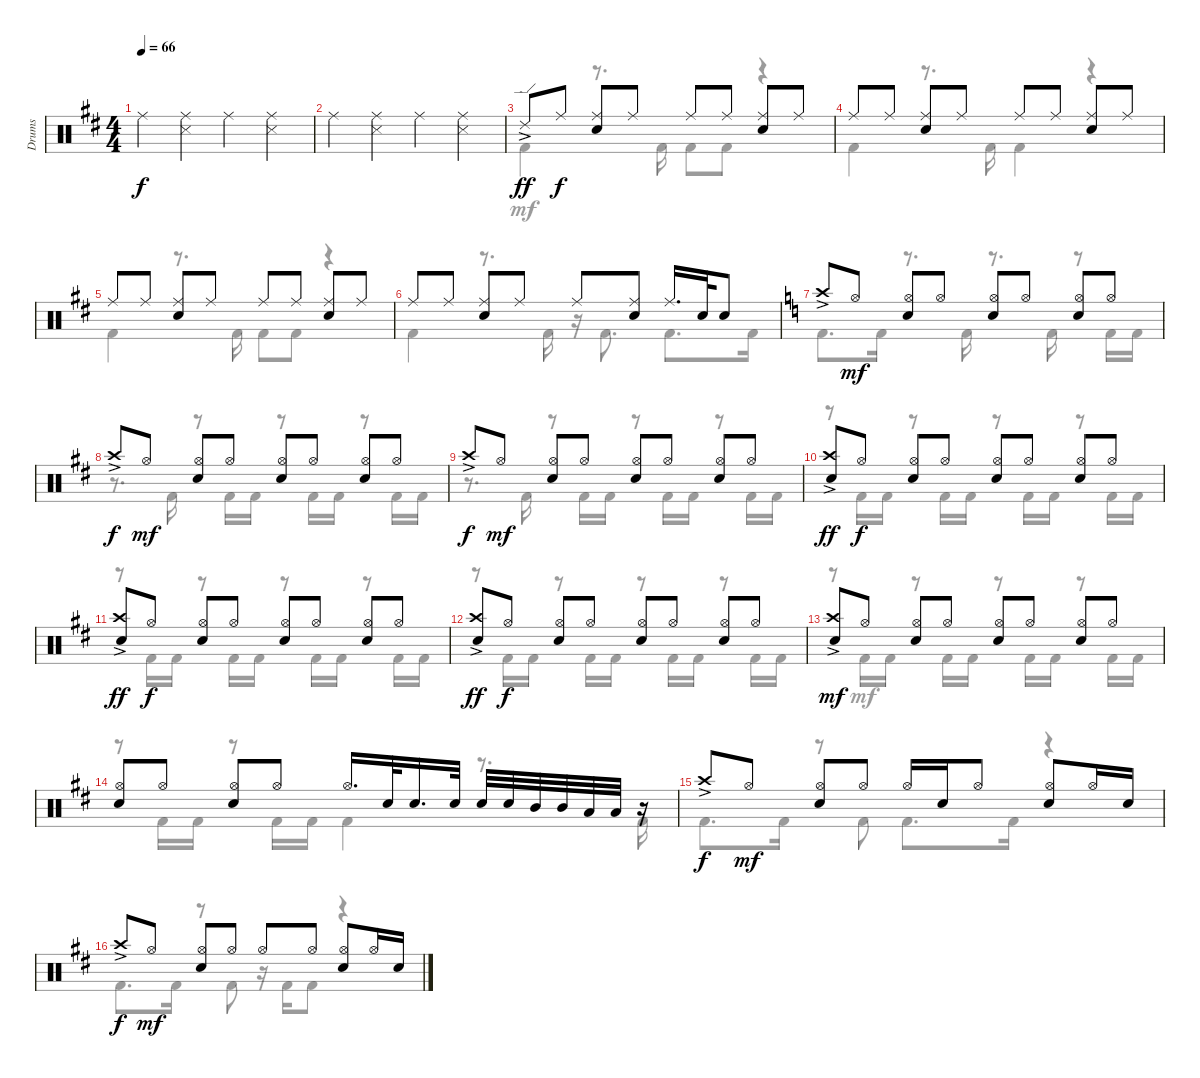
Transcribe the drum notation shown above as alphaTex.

\track ("Drums" "Drums") {instrument percussion}
\staff {score}
\articulation defaults
\voice
\ts (4 4)
\tempo 66
\clef neutral
\ks d "Ride (middle)".4{dy f}
("Ride (middle)" "Snare (side stick) 3").4 "Ride (middle)".4 ("Ride (middle)" "Snare (side stick) 3").4 |
"Ride (middle)".4 ("Ride (middle)" "Snare (side stick) 3").4 "Ride (middle)".4 ("Ride (middle)" "Snare (side stick) 3").4 |
"Ride (edge) 2"{ac}.8{dy ff} "Ride (middle)".8{dy f} ("Ride (middle)" "Electric Snare (hit)").8 "Ride (middle)".8 "Ride (middle)".8 "Ride (middle)".8 ("Ride (middle)" "Electric Snare (hit)").8 "Ride (middle)".8 |
"Ride (middle)".8 "Ride (middle)".8 ("Ride (middle)" "Electric Snare (hit)").8 "Ride (middle)".8 "Ride (middle)".8 "Ride (middle)".8 ("Ride (middle)" "Electric Snare (hit)").8 "Ride (middle)".8 |
"Ride (middle)".8 "Ride (middle)".8 ("Ride (middle)" "Electric Snare (hit)").8 "Ride (middle)".8 "Ride (middle)".8 "Ride (middle)".8 ("Ride (middle)" "Electric Snare (hit)").8 "Ride (middle)".8 |
"Ride (middle)".8 "Ride (middle)".8 ("Ride (middle)" "Electric Snare (hit)").8 "Ride (middle)".8 "Ride (middle)".8 ("Ride (middle)" "Electric Snare (hit)").8 "Ride (middle)".16{d} "Electric Snare (hit)".32 "Electric Snare (hit)".8 |
\ks c "Crash high (hit)"{ac}.8 "Hi-Hat (open)".8{dy mf}
("Hi-Hat (open)" "Electric Snare (hit)").8 "Hi-Hat (open)".8 ("Hi-Hat (open)" "Electric Snare (hit)").8 "Hi-Hat (open)".8 ("Hi-Hat (open)" "Electric Snare (hit)").8 "Hi-Hat (open)".8 |
\ks d "Crash high (hit)"{ac}.8{dy f} "Hi-Hat (open)".8{dy mf}
("Hi-Hat (open)" "Electric Snare (hit)").8 "Hi-Hat (open)".8 ("Hi-Hat (open)" "Electric Snare (hit)").8 "Hi-Hat (open)".8 ("Hi-Hat (open)" "Electric Snare (hit)").8 "Hi-Hat (open)".8 |
"Crash high (hit)"{ac}.8{dy f} "Hi-Hat (open)".8{dy mf} ("Hi-Hat (open)" "Electric Snare (hit)").8 "Hi-Hat (open)".8 ("Hi-Hat (open)" "Electric Snare (hit)").8 "Hi-Hat (open)".8 ("Hi-Hat (open)" "Electric Snare (hit)").8 "Hi-Hat (open)".8 |
("Crash high (hit)"{ac} "Electric Snare (hit)").8{dy ff} "Hi-Hat (open)".8{dy f} ("Hi-Hat (open)" "Electric Snare (hit)").8 "Hi-Hat (open)".8 ("Hi-Hat (open)" "Electric Snare (hit)").8 "Hi-Hat (open)".8 ("Hi-Hat (open)" "Electric Snare (hit)").8 "Hi-Hat (open)".8 |
("Crash high (hit)"{ac} "Electric Snare (hit)").8{dy ff} "Hi-Hat (open)".8{dy f} ("Hi-Hat (open)" "Electric Snare (hit)").8 "Hi-Hat (open)".8 ("Hi-Hat (open)" "Electric Snare (hit)").8 "Hi-Hat (open)".8 ("Hi-Hat (open)" "Electric Snare (hit)").8 "Hi-Hat (open)".8 |
("Crash high (hit)"{ac} "Electric Snare (hit)").8{dy ff} "Hi-Hat (open)".8{dy f} ("Hi-Hat (open)" "Electric Snare (hit)").8 "Hi-Hat (open)".8 ("Hi-Hat (open)" "Electric Snare (hit)").8 "Hi-Hat (open)".8 ("Hi-Hat (open)" "Electric Snare (hit)").8 "Hi-Hat (open)".8 |
("Crash high (hit)"{ac} "Electric Snare (hit)").8{dy mf} "Hi-Hat (open)".8 ("Hi-Hat (open)" "Electric Snare (hit)").8 "Hi-Hat (open)".8 ("Hi-Hat (open)" "Electric Snare (hit)").8 "Hi-Hat (open)".8 ("Hi-Hat (open)" "Electric Snare (hit)").8 "Hi-Hat (open)".8 |
("Hi-Hat (open)" "Electric Snare (hit)").8 "Hi-Hat (open)".8 ("Hi-Hat (open)" "Electric Snare (hit)").8 "Hi-Hat (open)".8 "Hi-Hat (open)".16{d} "Electric Snare (hit)".32 "Electric Snare (hit)".16{d} "Electric Snare (hit)".32 "Electric Snare (hit)".32 "Electric Snare (hit)".32 "Mid Tom (hit)".32 "Mid Tom (hit)".32 "Low Tom (hit)".32 "Low Tom (hit)".32 r.16 |
"Crash high (hit)"{ac}.8{dy f} "Hi-Hat (open)".8{dy mf} ("Hi-Hat (open)" "Electric Snare (hit)").8 "Hi-Hat (open)".8 "Hi-Hat (open)".16 "Electric Snare (hit)".16 "Hi-Hat (open)".8 ("Hi-Hat (open)" "Electric Snare (hit)").8 "Hi-Hat (open)".16 "Electric Snare (hit)".16 |
"Crash high (hit)"{ac}.8{dy f} "Hi-Hat (open)".8{dy mf} ("Hi-Hat (open)" "Electric Snare (hit)").8 "Hi-Hat (open)".8 "Hi-Hat (open)".8 "Hi-Hat (open)".8 ("Hi-Hat (open)" "Electric Snare (hit)").8 "Hi-Hat (open)".16 "Electric Snare (hit)".16
\voice
\clef neutral
\ottava regular
\simile none
\ks d
|
|
"Kick (hit) 2".4 r.8{d} "Kick (hit) 2".16 "Kick (hit) 2".8 "Kick (hit) 2".8 r.4 |
"Kick (hit) 2".4 r.8{d} "Kick (hit) 2".16 "Kick (hit) 2".4 r.4 |
"Kick (hit) 2".4 r.8{d} "Kick (hit) 2".16 "Kick (hit) 2".8 "Kick (hit) 2".8 r.4 |
"Kick (hit) 2".4 r.8{d} "Kick (hit) 2".16 r.16 "Kick (hit) 2".8{d} "Kick (hit) 2".8{d} "Kick (hit) 2".16 |
\ks c "Kick (hit) 2".8{d dy mf} "Kick (hit) 2".16
r.8{d} "Kick (hit) 2".16 r.8{d} "Kick (hit) 2".16 r.8 "Kick (hit) 2".16 "Kick (hit) 2".16 |
\ks d
r.8{d} "Kick (hit) 2".16 r.8 "Kick (hit) 2".16 "Kick (hit) 2".16 r.8 "Kick (hit) 2".16 "Kick (hit) 2".16 r.8 "Kick (hit) 2".16 "Kick (hit) 2".16 |
r.8{d} "Kick (hit) 2".16 r.8 "Kick (hit) 2".16 "Kick (hit) 2".16 r.8 "Kick (hit) 2".16 "Kick (hit) 2".16 r.8 "Kick (hit) 2".16 "Kick (hit) 2".16 |
r.8 "Kick (hit) 2".16{dy f} "Kick (hit) 2".16 r.8 "Kick (hit) 2".16 "Kick (hit) 2".16 r.8 "Kick (hit) 2".16 "Kick (hit) 2".16 r.8 "Kick (hit) 2".16 "Kick (hit) 2".16 |
r.8 "Kick (hit) 2".16 "Kick (hit) 2".16 r.8 "Kick (hit) 2".16 "Kick (hit) 2".16 r.8 "Kick (hit) 2".16 "Kick (hit) 2".16 r.8 "Kick (hit) 2".16 "Kick (hit) 2".16 |
r.8 "Kick (hit) 2".16 "Kick (hit) 2".16 r.8 "Kick (hit) 2".16 "Kick (hit) 2".16 r.8 "Kick (hit) 2".16 "Kick (hit) 2".16 r.8 "Kick (hit) 2".16 "Kick (hit) 2".16 |
r.8 "Kick (hit) 2".16{dy mf} "Kick (hit) 2".16 r.8 "Kick (hit) 2".16 "Kick (hit) 2".16 r.8 "Kick (hit) 2".16 "Kick (hit) 2".16 r.8 "Kick (hit) 2".16 "Kick (hit) 2".16 |
r.8 "Kick (hit) 2".16 "Kick (hit) 2".16 r.8 "Kick (hit) 2".16 "Kick (hit) 2".16 "Kick (hit) 2".4 r.8{d} "Kick (hit) 2".16 |
"Kick (hit) 2".8{d} "Kick (hit) 2".16 r.8 "Kick (hit) 2".8 "Kick (hit) 2".8{d} "Kick (hit) 2".16 r.4 |
"Kick (hit) 2".8{d} "Kick (hit) 2".16 r.8 "Kick (hit) 2".8 r.16 "Kick (hit) 2".16 "Kick (hit) 2".8 r.4
